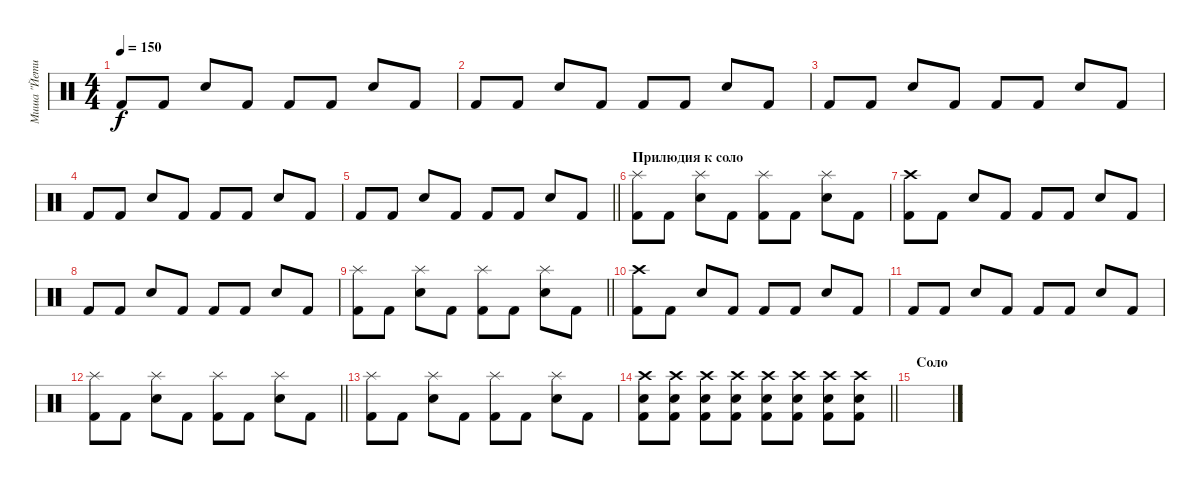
\track ("Миша \"Йети\" Евсеев" "Миша \"Йети") {instrument percussion}
\staff {score}
\articulation defaults
\ts (4 4)
\tempo 150
\clef neutral
\ks c "Kick (hit) 2".8{dy f} "Kick (hit) 2".8 "Snare (hit) 2".8 "Kick (hit) 2".8 "Kick (hit) 2".8 "Kick (hit) 2".8 "Snare (hit) 2".8 "Kick (hit) 2".8
|
"Kick (hit) 2".8 "Kick (hit) 2".8 "Snare (hit) 2".8 "Kick (hit) 2".8 "Kick (hit) 2".8 "Kick (hit) 2".8 "Snare (hit) 2".8 "Kick (hit) 2".8 |
"Kick (hit) 2".8 "Kick (hit) 2".8 "Snare (hit) 2".8 "Kick (hit) 2".8 "Kick (hit) 2".8 "Kick (hit) 2".8 "Snare (hit) 2".8 "Kick (hit) 2".8 |
"Kick (hit) 2".8 "Kick (hit) 2".8 "Snare (hit) 2".8 "Kick (hit) 2".8 "Kick (hit) 2".8 "Kick (hit) 2".8 "Snare (hit) 2".8 "Kick (hit) 2".8 |
\barLineRight lightlight "Kick (hit) 2".8 "Kick (hit) 2".8 "Snare (hit) 2".8 "Kick (hit) 2".8 "Kick (hit) 2".8 "Kick (hit) 2".8 "Snare (hit) 2".8 "Kick (hit) 2".8
|
\section ("" "Прилюдия к соло")
("Kick (hit) 2" "Splash (hit)").8 "Kick (hit) 2".8 ("Snare (hit) 2" "Splash (hit)").8 "Kick (hit) 2".8 ("Kick (hit) 2" "Splash (hit)").8 "Kick (hit) 2".8 ("Snare (hit) 2" "Splash (hit)").8 "Kick (hit) 2".8 |
("Kick (hit) 2" "Crash high (hit)").8 "Kick (hit) 2".8 "Snare (hit) 2".8 "Kick (hit) 2".8 "Kick (hit) 2".8 "Kick (hit) 2".8 "Snare (hit) 2".8 "Kick (hit) 2".8 |
"Kick (hit) 2".8 "Kick (hit) 2".8 "Snare (hit) 2".8 "Kick (hit) 2".8 "Kick (hit) 2".8 "Kick (hit) 2".8 "Snare (hit) 2".8 "Kick (hit) 2".8 |
\barLineRight lightlight
("Kick (hit) 2" "Splash (hit)").8 "Kick (hit) 2".8 ("Snare (hit) 2" "Splash (hit)").8 "Kick (hit) 2".8 ("Kick (hit) 2" "Splash (hit)").8 "Kick (hit) 2".8 ("Snare (hit) 2" "Splash (hit)").8 "Kick (hit) 2".8 |
("Kick (hit) 2" "Crash high (hit)").8 "Kick (hit) 2".8 "Snare (hit) 2".8 "Kick (hit) 2".8 "Kick (hit) 2".8 "Kick (hit) 2".8 "Snare (hit) 2".8 "Kick (hit) 2".8 |
"Kick (hit) 2".8 "Kick (hit) 2".8 "Snare (hit) 2".8 "Kick (hit) 2".8 "Kick (hit) 2".8 "Kick (hit) 2".8 "Snare (hit) 2".8 "Kick (hit) 2".8 |
\barLineRight lightlight
("Kick (hit) 2" "Splash (hit)").8 "Kick (hit) 2".8 ("Snare (hit) 2" "Splash (hit)").8 "Kick (hit) 2".8 ("Kick (hit) 2" "Splash (hit)").8 "Kick (hit) 2".8 ("Snare (hit) 2" "Splash (hit)").8 "Kick (hit) 2".8 |
("Kick (hit) 2" "Splash (hit)").8 "Kick (hit) 2".8 ("Snare (hit) 2" "Splash (hit)").8 "Kick (hit) 2".8 ("Kick (hit) 2" "Splash (hit)").8 "Kick (hit) 2".8 ("Snare (hit) 2" "Splash (hit)").8 "Kick (hit) 2".8 |
\barLineRight lightlight
("Kick (hit) 2" "Snare (hit) 2" "Crash high (hit)").8 ("Kick (hit) 2" "Snare (hit) 2" "Crash high (hit)").8 ("Kick (hit) 2" "Snare (hit) 2" "Crash high (hit)").8 ("Kick (hit) 2" "Snare (hit) 2" "Crash high (hit)").8 ("Kick (hit) 2" "Snare (hit) 2" "Crash high (hit)").8 ("Kick (hit) 2" "Snare (hit) 2" "Crash high (hit)").8 ("Kick (hit) 2" "Snare (hit) 2" "Crash high (hit)").8 ("Kick (hit) 2" "Snare (hit) 2" "Crash high (hit)").8 |
\section ("" "Соло")
